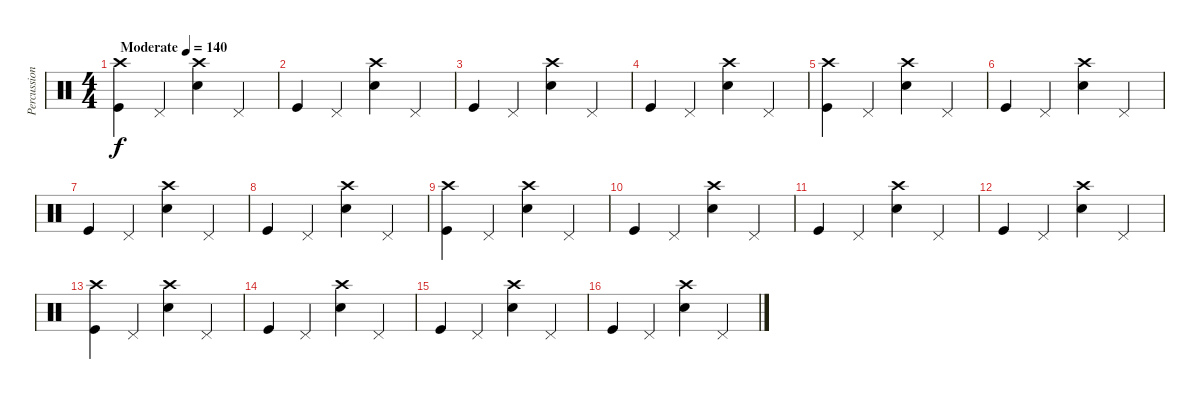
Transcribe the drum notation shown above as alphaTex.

\track ("Percussion" "Percussion") {instrument percussion}
\staff {score}
\articulation defaults
\ts (4 4)
\tempo (140 "Moderate")
\clef neutral
\ks c
("Crash high (hit)" "Kick (hit)").4{dy f} "Pedal Hi-Hat (hit)".4 ("Crash high (hit)" "Snare (hit) 2").4 "Pedal Hi-Hat (hit)".4 |
"Kick (hit)".4 "Pedal Hi-Hat (hit)".4 ("Crash high (hit)" "Snare (hit) 2").4 "Pedal Hi-Hat (hit)".4 |
"Kick (hit)".4 "Pedal Hi-Hat (hit)".4 ("Crash high (hit)" "Snare (hit) 2").4 "Pedal Hi-Hat (hit)".4 |
"Kick (hit)".4 "Pedal Hi-Hat (hit)".4 ("Crash high (hit)" "Snare (hit) 2").4 "Pedal Hi-Hat (hit)".4 |
("Crash high (hit)" "Kick (hit)").4 "Pedal Hi-Hat (hit)".4 ("Crash high (hit)" "Snare (hit) 2").4 "Pedal Hi-Hat (hit)".4 |
"Kick (hit)".4 "Pedal Hi-Hat (hit)".4 ("Crash high (hit)" "Snare (hit) 2").4 "Pedal Hi-Hat (hit)".4 |
"Kick (hit)".4 "Pedal Hi-Hat (hit)".4 ("Crash high (hit)" "Snare (hit) 2").4 "Pedal Hi-Hat (hit)".4 |
"Kick (hit)".4 "Pedal Hi-Hat (hit)".4 ("Crash high (hit)" "Snare (hit) 2").4 "Pedal Hi-Hat (hit)".4 |
("Crash high (hit)" "Kick (hit)").4 "Pedal Hi-Hat (hit)".4 ("Crash high (hit)" "Snare (hit) 2").4 "Pedal Hi-Hat (hit)".4 |
"Kick (hit)".4 "Pedal Hi-Hat (hit)".4 ("Crash high (hit)" "Snare (hit) 2").4 "Pedal Hi-Hat (hit)".4 |
"Kick (hit)".4 "Pedal Hi-Hat (hit)".4 ("Crash high (hit)" "Snare (hit) 2").4 "Pedal Hi-Hat (hit)".4 |
"Kick (hit)".4 "Pedal Hi-Hat (hit)".4 ("Crash high (hit)" "Snare (hit) 2").4 "Pedal Hi-Hat (hit)".4 |
("Crash high (hit)" "Kick (hit)").4 "Pedal Hi-Hat (hit)".4 ("Crash high (hit)" "Snare (hit) 2").4 "Pedal Hi-Hat (hit)".4 |
"Kick (hit)".4 "Pedal Hi-Hat (hit)".4 ("Crash high (hit)" "Snare (hit) 2").4 "Pedal Hi-Hat (hit)".4 |
"Kick (hit)".4 "Pedal Hi-Hat (hit)".4 ("Crash high (hit)" "Snare (hit) 2").4 "Pedal Hi-Hat (hit)".4 |
"Kick (hit)".4 "Pedal Hi-Hat (hit)".4 ("Crash high (hit)" "Snare (hit) 2").4 "Pedal Hi-Hat (hit)".4
